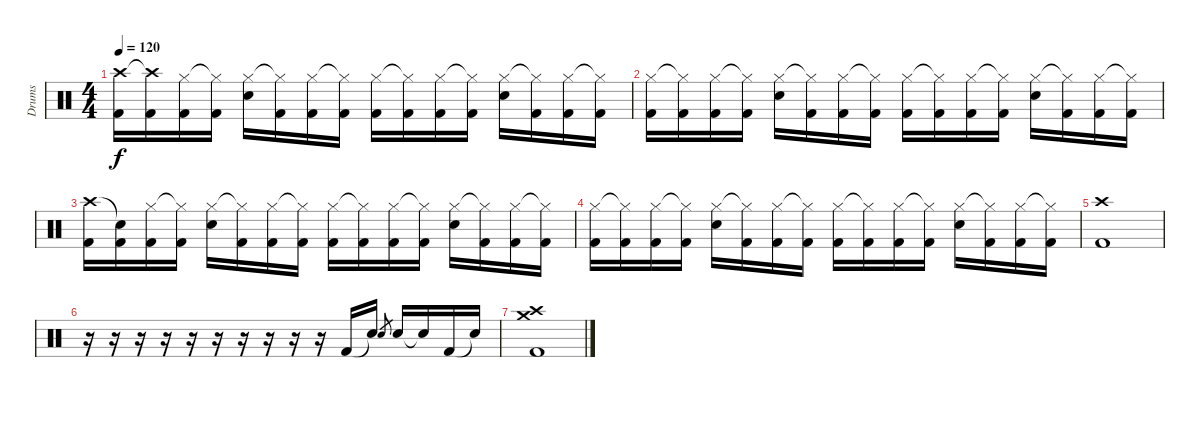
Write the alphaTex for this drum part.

\track ("Drums" "Drums") {instrument percussion}
\staff {score}
\articulation defaults
\ts (4 4)
\tempo 120
\clef neutral
\ks c
("Crash high (hit)" "Kick (hit) 2").16{dy f} ("Crash high (hit)"{t} "Kick (hit) 2").16 ("Hi-Hat (closed)" "Kick (hit) 2").16 ("Hi-Hat (closed)"{t} "Kick (hit) 2").16 ("Hi-Hat (closed)" "Snare (hit) 2").16 ("Hi-Hat (closed)"{t} "Kick (hit) 2").16 ("Hi-Hat (closed)" "Kick (hit) 2").16 ("Hi-Hat (closed)"{t} "Kick (hit) 2").16 ("Hi-Hat (closed)" "Kick (hit) 2").16 ("Hi-Hat (closed)"{t} "Kick (hit) 2").16 ("Hi-Hat (closed)" "Kick (hit) 2").16 ("Hi-Hat (closed)"{t} "Kick (hit) 2").16 ("Hi-Hat (closed)" "Snare (hit) 2").16 ("Hi-Hat (closed)"{t} "Kick (hit) 2").16 ("Hi-Hat (closed)" "Kick (hit) 2").16 ("Hi-Hat (closed)"{t} "Kick (hit) 2").16 |
("Hi-Hat (closed)" "Kick (hit) 2").16 ("Hi-Hat (closed)"{t} "Kick (hit) 2").16 ("Hi-Hat (closed)" "Kick (hit) 2").16 ("Hi-Hat (closed)"{t} "Kick (hit) 2").16 ("Hi-Hat (closed)" "Snare (hit) 2").16 ("Hi-Hat (closed)"{t} "Kick (hit) 2").16 ("Hi-Hat (closed)" "Kick (hit) 2").16 ("Hi-Hat (closed)"{t} "Kick (hit) 2").16 ("Hi-Hat (closed)" "Kick (hit) 2").16 ("Hi-Hat (closed)"{t} "Kick (hit) 2").16 ("Hi-Hat (closed)" "Kick (hit) 2").16 ("Hi-Hat (closed)"{t} "Kick (hit) 2").16 ("Hi-Hat (closed)" "Snare (hit) 2").16 ("Hi-Hat (closed)"{t} "Kick (hit) 2").16 ("Hi-Hat (closed)" "Kick (hit) 2").16 ("Hi-Hat (closed)"{t} "Kick (hit) 2").16 |
("Crash high (hit)" "Kick (hit) 2").16 ("Snare (hit)"{t} "Kick (hit) 2").16 ("Hi-Hat (closed)" "Kick (hit) 2").16 ("Hi-Hat (closed)"{t} "Kick (hit) 2").16 ("Hi-Hat (closed)" "Snare (hit) 2").16 ("Hi-Hat (closed)"{t} "Kick (hit) 2").16 ("Hi-Hat (closed)" "Kick (hit) 2").16 ("Hi-Hat (closed)"{t} "Kick (hit) 2").16 ("Hi-Hat (closed)" "Kick (hit) 2").16 ("Hi-Hat (closed)"{t} "Kick (hit) 2").16 ("Hi-Hat (closed)" "Kick (hit) 2").16 ("Hi-Hat (closed)"{t} "Kick (hit) 2").16 ("Hi-Hat (closed)" "Snare (hit) 2").16 ("Hi-Hat (closed)"{t} "Kick (hit) 2").16 ("Hi-Hat (closed)" "Kick (hit) 2").16 ("Hi-Hat (closed)"{t} "Kick (hit) 2").16 |
("Hi-Hat (closed)" "Kick (hit) 2").16 ("Hi-Hat (closed)"{t} "Kick (hit) 2").16 ("Hi-Hat (closed)" "Kick (hit) 2").16 ("Hi-Hat (closed)"{t} "Kick (hit) 2").16 ("Hi-Hat (closed)" "Snare (hit) 2").16 ("Hi-Hat (closed)"{t} "Kick (hit) 2").16 ("Hi-Hat (closed)" "Kick (hit) 2").16 ("Hi-Hat (closed)"{t} "Kick (hit) 2").16 ("Hi-Hat (closed)" "Kick (hit) 2").16 ("Hi-Hat (closed)"{t} "Kick (hit) 2").16 ("Hi-Hat (closed)" "Kick (hit) 2").16 ("Hi-Hat (closed)"{t} "Kick (hit) 2").16 ("Hi-Hat (closed)" "Snare (hit) 2").16 ("Hi-Hat (closed)"{t} "Kick (hit) 2").16 ("Hi-Hat (closed)" "Kick (hit) 2").16 ("Hi-Hat (closed)"{t} "Kick (hit) 2").16 |
("Crash high (hit)" "Kick (hit) 2").1 |
r.16 r.16 r.16 r.16 r.16 r.16 r.16 r.16 r.16 r.16 "Kick (hit) 2".16 "Snare (hit)"{t}.16 "Snare (hit) 2".8{gr} "Snare (hit) 2".16 "Snare (hit)"{t}.16 "Kick (hit) 2".16 "Snare (hit)"{t}.16 |
("Crash high (hit)" "Crash medium (hit)" "Kick (hit) 2").1
